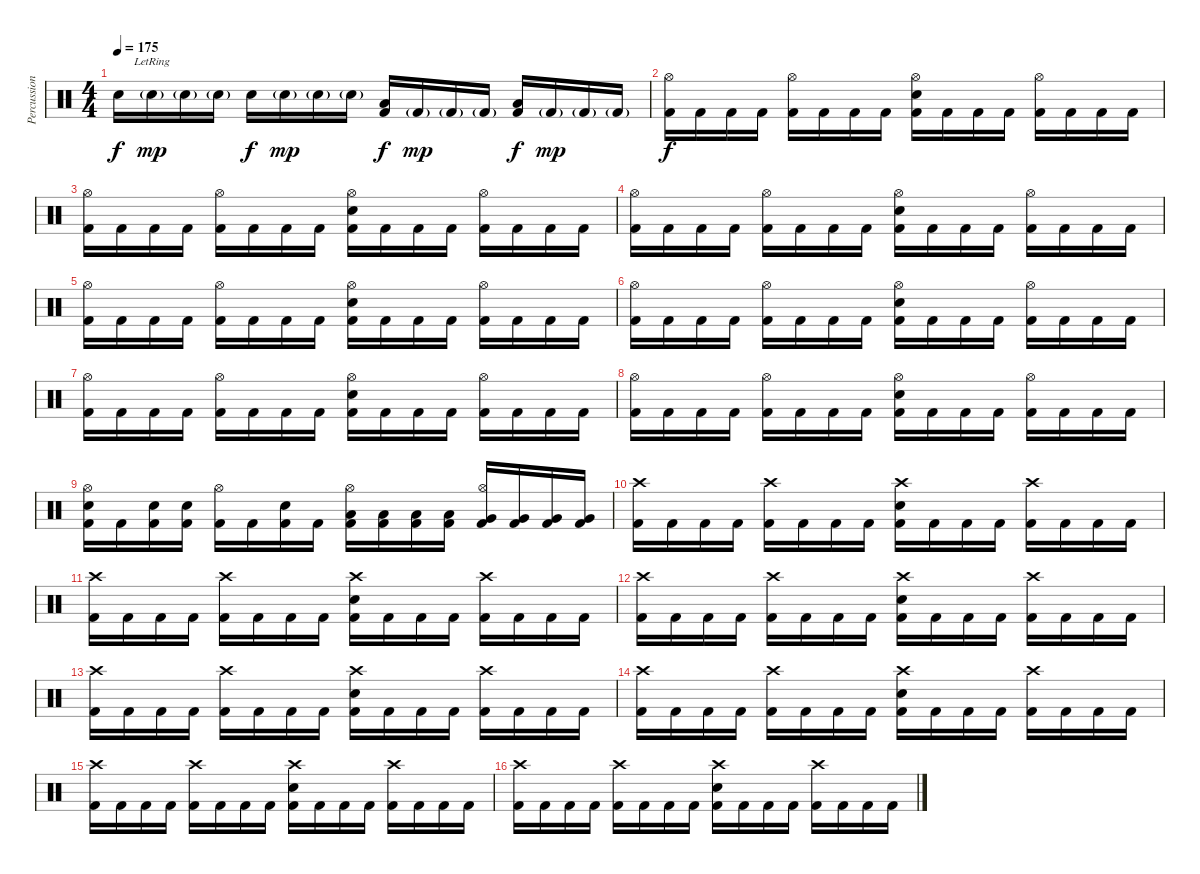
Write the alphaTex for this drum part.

\track ("Percussion" "Percussion") {instrument percussion}
\staff {score}
\articulation defaults
\ts (4 4)
\tempo 175
\clef neutral
\ks c "Electric Snare (hit)".16{dy f} "Electric Snare (hit)"{g lr}.16{dy mp} "Electric Snare (hit)"{g}.16 "Electric Snare (hit)"{g}.16 "Electric Snare (hit)".16{dy f} "Electric Snare (hit)"{g}.16{dy mp} "Electric Snare (hit)"{g}.16 "Electric Snare (hit)"{g}.16
("Low Tom (hit)" "Kick (hit) 2").16{dy f} "Kick (hit) 2"{g}.16{dy mp} "Kick (hit) 2"{g}.16 "Kick (hit) 2"{g}.16 ("Low Tom (hit)" "Kick (hit) 2").16{dy f} "Kick (hit) 2"{g}.16{dy mp} "Kick (hit) 2"{g}.16 "Kick (hit) 2"{g}.16 |
("Hi-Hat (open)" "Kick (hit) 2").16{dy f} "Kick (hit) 2".16 "Kick (hit) 2".16 "Kick (hit) 2".16 ("Hi-Hat (open)" "Kick (hit) 2").16 "Kick (hit) 2".16 "Kick (hit) 2".16 "Kick (hit) 2".16 ("Hi-Hat (open)" "Electric Snare (hit)" "Kick (hit) 2").16 "Kick (hit) 2".16 "Kick (hit) 2".16 "Kick (hit) 2".16 ("Hi-Hat (open)" "Kick (hit) 2").16 "Kick (hit) 2".16 "Kick (hit) 2".16 "Kick (hit) 2".16 |
("Hi-Hat (open)" "Kick (hit) 2").16 "Kick (hit) 2".16 "Kick (hit) 2".16 "Kick (hit) 2".16 ("Hi-Hat (open)" "Kick (hit) 2").16 "Kick (hit) 2".16 "Kick (hit) 2".16 "Kick (hit) 2".16 ("Hi-Hat (open)" "Electric Snare (hit)" "Kick (hit) 2").16 "Kick (hit) 2".16 "Kick (hit) 2".16 "Kick (hit) 2".16 ("Hi-Hat (open)" "Kick (hit) 2").16 "Kick (hit) 2".16 "Kick (hit) 2".16 "Kick (hit) 2".16 |
("Hi-Hat (open)" "Kick (hit) 2").16 "Kick (hit) 2".16 "Kick (hit) 2".16 "Kick (hit) 2".16 ("Hi-Hat (open)" "Kick (hit) 2").16 "Kick (hit) 2".16 "Kick (hit) 2".16 "Kick (hit) 2".16 ("Hi-Hat (open)" "Electric Snare (hit)" "Kick (hit) 2").16 "Kick (hit) 2".16 "Kick (hit) 2".16 "Kick (hit) 2".16 ("Hi-Hat (open)" "Kick (hit) 2").16 "Kick (hit) 2".16 "Kick (hit) 2".16 "Kick (hit) 2".16 |
("Hi-Hat (open)" "Kick (hit) 2").16 "Kick (hit) 2".16 "Kick (hit) 2".16 "Kick (hit) 2".16 ("Hi-Hat (open)" "Kick (hit) 2").16 "Kick (hit) 2".16 "Kick (hit) 2".16 "Kick (hit) 2".16 ("Hi-Hat (open)" "Electric Snare (hit)" "Kick (hit) 2").16 "Kick (hit) 2".16 "Kick (hit) 2".16 "Kick (hit) 2".16 ("Hi-Hat (open)" "Kick (hit) 2").16 "Kick (hit) 2".16 "Kick (hit) 2".16 "Kick (hit) 2".16 |
("Hi-Hat (open)" "Kick (hit) 2").16 "Kick (hit) 2".16 "Kick (hit) 2".16 "Kick (hit) 2".16 ("Hi-Hat (open)" "Kick (hit) 2").16 "Kick (hit) 2".16 "Kick (hit) 2".16 "Kick (hit) 2".16 ("Hi-Hat (open)" "Electric Snare (hit)" "Kick (hit) 2").16 "Kick (hit) 2".16 "Kick (hit) 2".16 "Kick (hit) 2".16 ("Hi-Hat (open)" "Kick (hit) 2").16 "Kick (hit) 2".16 "Kick (hit) 2".16 "Kick (hit) 2".16 |
("Hi-Hat (open)" "Kick (hit) 2").16 "Kick (hit) 2".16 "Kick (hit) 2".16 "Kick (hit) 2".16 ("Hi-Hat (open)" "Kick (hit) 2").16 "Kick (hit) 2".16 "Kick (hit) 2".16 "Kick (hit) 2".16 ("Hi-Hat (open)" "Electric Snare (hit)" "Kick (hit) 2").16 "Kick (hit) 2".16 "Kick (hit) 2".16 "Kick (hit) 2".16 ("Hi-Hat (open)" "Kick (hit) 2").16 "Kick (hit) 2".16 "Kick (hit) 2".16 "Kick (hit) 2".16 |
("Hi-Hat (open)" "Kick (hit) 2").16 "Kick (hit) 2".16 "Kick (hit) 2".16 "Kick (hit) 2".16 ("Hi-Hat (open)" "Kick (hit) 2").16 "Kick (hit) 2".16 "Kick (hit) 2".16 "Kick (hit) 2".16 ("Hi-Hat (open)" "Electric Snare (hit)" "Kick (hit) 2").16 "Kick (hit) 2".16 "Kick (hit) 2".16 "Kick (hit) 2".16 ("Hi-Hat (open)" "Kick (hit) 2").16 "Kick (hit) 2".16 "Kick (hit) 2".16 "Kick (hit) 2".16 |
("Hi-Hat (open)" "Electric Snare (hit)" "Kick (hit) 2").16 "Kick (hit) 2".16 ("Electric Snare (hit)" "Kick (hit) 2").16 ("Electric Snare (hit)" "Kick (hit) 2").16 ("Hi-Hat (open)" "Kick (hit) 2").16 "Kick (hit) 2".16 ("Electric Snare (hit)" "Kick (hit) 2").16 "Kick (hit) 2".16 ("Hi-Hat (open)" "Low Tom (hit)" "Kick (hit) 2").16 ("Low Tom (hit)" "Kick (hit) 2").16 ("Low Tom (hit)" "Kick (hit) 2").16 ("Low Tom (hit)" "Kick (hit) 2").16 ("Hi-Hat (open)" "Very Low Tom (hit)" "Kick (hit) 2").16 ("Very Low Tom (hit)" "Kick (hit) 2").16 ("Very Low Tom (hit)" "Kick (hit) 2").16 ("Very Low Tom (hit)" "Kick (hit) 2").16 |
("Crash high (hit)" "Kick (hit) 2").16 "Kick (hit) 2".16 "Kick (hit) 2".16 "Kick (hit) 2".16 ("Crash high (hit)" "Kick (hit) 2").16 "Kick (hit) 2".16 "Kick (hit) 2".16 "Kick (hit) 2".16 ("Crash high (hit)" "Electric Snare (hit)" "Kick (hit) 2").16 "Kick (hit) 2".16 "Kick (hit) 2".16 "Kick (hit) 2".16 ("Crash high (hit)" "Kick (hit) 2").16 "Kick (hit) 2".16 "Kick (hit) 2".16 "Kick (hit) 2".16 |
("Crash high (hit)" "Kick (hit) 2").16 "Kick (hit) 2".16 "Kick (hit) 2".16 "Kick (hit) 2".16 ("Crash high (hit)" "Kick (hit) 2").16 "Kick (hit) 2".16 "Kick (hit) 2".16 "Kick (hit) 2".16 ("Crash high (hit)" "Electric Snare (hit)" "Kick (hit) 2").16 "Kick (hit) 2".16 "Kick (hit) 2".16 "Kick (hit) 2".16 ("Crash high (hit)" "Kick (hit) 2").16 "Kick (hit) 2".16 "Kick (hit) 2".16 "Kick (hit) 2".16 |
("Crash high (hit)" "Kick (hit) 2").16 "Kick (hit) 2".16 "Kick (hit) 2".16 "Kick (hit) 2".16 ("Crash high (hit)" "Kick (hit) 2").16 "Kick (hit) 2".16 "Kick (hit) 2".16 "Kick (hit) 2".16 ("Crash high (hit)" "Electric Snare (hit)" "Kick (hit) 2").16 "Kick (hit) 2".16 "Kick (hit) 2".16 "Kick (hit) 2".16 ("Crash high (hit)" "Kick (hit) 2").16 "Kick (hit) 2".16 "Kick (hit) 2".16 "Kick (hit) 2".16 |
("Crash high (hit)" "Kick (hit) 2").16 "Kick (hit) 2".16 "Kick (hit) 2".16 "Kick (hit) 2".16 ("Crash high (hit)" "Kick (hit) 2").16 "Kick (hit) 2".16 "Kick (hit) 2".16 "Kick (hit) 2".16 ("Crash high (hit)" "Electric Snare (hit)" "Kick (hit) 2").16 "Kick (hit) 2".16 "Kick (hit) 2".16 "Kick (hit) 2".16 ("Crash high (hit)" "Kick (hit) 2").16 "Kick (hit) 2".16 "Kick (hit) 2".16 "Kick (hit) 2".16 |
("Crash high (hit)" "Kick (hit) 2").16 "Kick (hit) 2".16 "Kick (hit) 2".16 "Kick (hit) 2".16 ("Crash high (hit)" "Kick (hit) 2").16 "Kick (hit) 2".16 "Kick (hit) 2".16 "Kick (hit) 2".16 ("Crash high (hit)" "Electric Snare (hit)" "Kick (hit) 2").16 "Kick (hit) 2".16 "Kick (hit) 2".16 "Kick (hit) 2".16 ("Crash high (hit)" "Kick (hit) 2").16 "Kick (hit) 2".16 "Kick (hit) 2".16 "Kick (hit) 2".16 |
("Crash high (hit)" "Kick (hit) 2").16 "Kick (hit) 2".16 "Kick (hit) 2".16 "Kick (hit) 2".16 ("Crash high (hit)" "Kick (hit) 2").16 "Kick (hit) 2".16 "Kick (hit) 2".16 "Kick (hit) 2".16 ("Crash high (hit)" "Electric Snare (hit)" "Kick (hit) 2").16 "Kick (hit) 2".16 "Kick (hit) 2".16 "Kick (hit) 2".16 ("Crash high (hit)" "Kick (hit) 2").16 "Kick (hit) 2".16 "Kick (hit) 2".16 "Kick (hit) 2".16 |
("Crash high (hit)" "Kick (hit) 2").16 "Kick (hit) 2".16 "Kick (hit) 2".16 "Kick (hit) 2".16 ("Crash high (hit)" "Kick (hit) 2").16 "Kick (hit) 2".16 "Kick (hit) 2".16 "Kick (hit) 2".16 ("Crash high (hit)" "Electric Snare (hit)" "Kick (hit) 2").16 "Kick (hit) 2".16 "Kick (hit) 2".16 "Kick (hit) 2".16 ("Crash high (hit)" "Kick (hit) 2").16 "Kick (hit) 2".16 "Kick (hit) 2".16 "Kick (hit) 2".16
